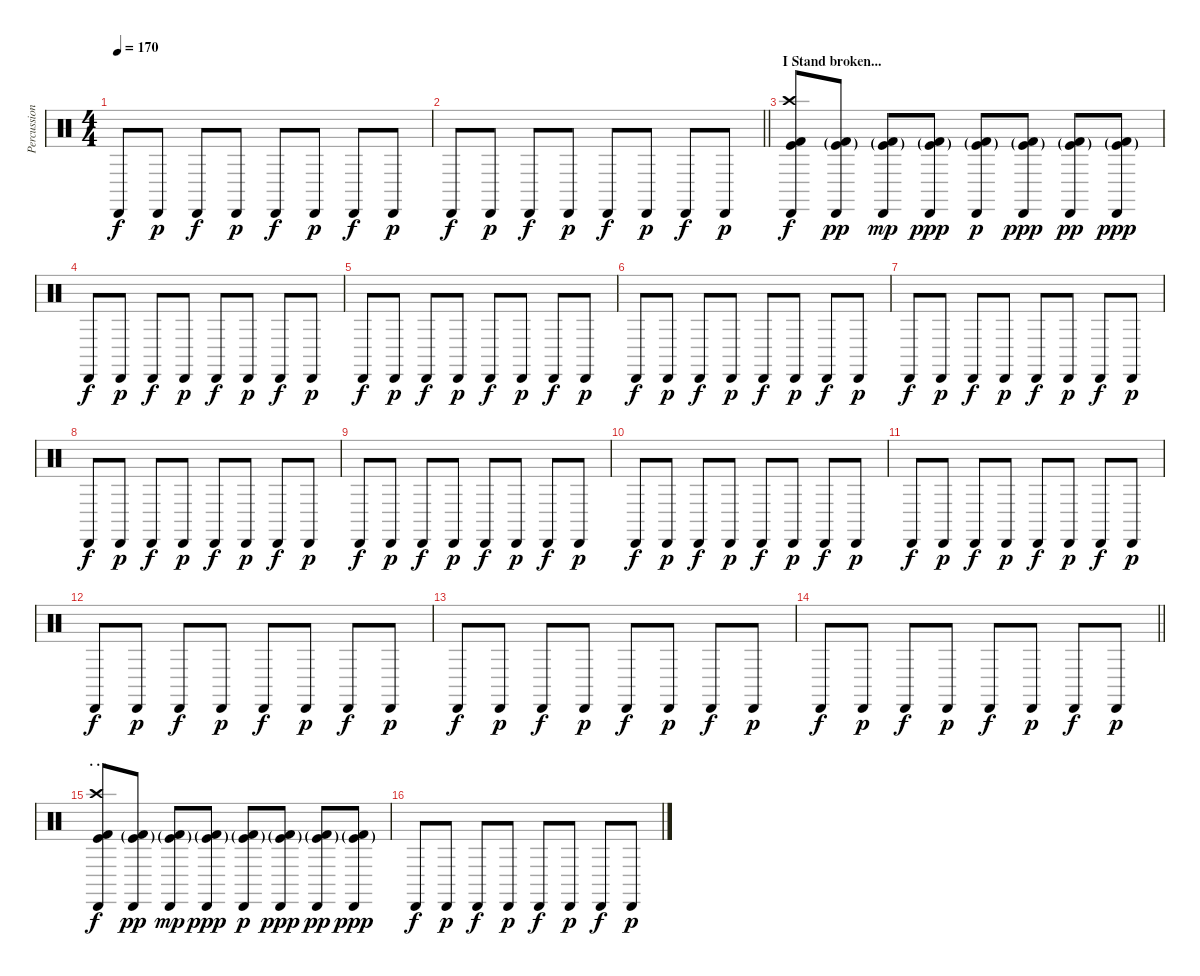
\track ("Percussion" "Percussion") {instrument percussion}
\staff {score}
\articulation defaults
\ts (4 4)
\tempo 170
\clef neutral
\ks c "Cabasa (hit)".8{dy f} "Cabasa (hit)".8{dy p} "Cabasa (hit)".8{dy f} "Cabasa (hit)".8{dy p} "Cabasa (hit)".8{dy f} "Cabasa (hit)".8{dy p} "Cabasa (hit)".8{dy f} "Cabasa (hit)".8{dy p}
|
\barLineRight lightlight "Cabasa (hit)".8{dy f} "Cabasa (hit)".8{dy p} "Cabasa (hit)".8{dy f} "Cabasa (hit)".8{dy p} "Cabasa (hit)".8{dy f} "Cabasa (hit)".8{dy p} "Cabasa (hit)".8{dy f} "Cabasa (hit)".8{dy p}
|
\section ("" "I Stand broken...")
("Cabasa (hit)" "Kick (hit)" "Kick (hit) 2" "Crash high (hit)").8{dy f} ("Cabasa (hit)" "Kick (hit)"{g} "Kick (hit) 2"{g}).8{dy pp} ("Cabasa (hit)" "Kick (hit)"{g} "Kick (hit) 2"{g}).8{dy mp} ("Cabasa (hit)" "Kick (hit)"{g} "Kick (hit) 2"{g}).8{dy ppp} ("Cabasa (hit)" "Kick (hit)"{g} "Kick (hit) 2"{g}).8{dy p} ("Cabasa (hit)" "Kick (hit)"{g} "Kick (hit) 2"{g}).8{dy ppp} ("Cabasa (hit)" "Kick (hit)"{g} "Kick (hit) 2"{g}).8{dy pp} ("Cabasa (hit)" "Kick (hit)"{g} "Kick (hit) 2"{g}).8{dy ppp} |
"Cabasa (hit)".8{dy f} "Cabasa (hit)".8{dy p} "Cabasa (hit)".8{dy f} "Cabasa (hit)".8{dy p} "Cabasa (hit)".8{dy f} "Cabasa (hit)".8{dy p} "Cabasa (hit)".8{dy f} "Cabasa (hit)".8{dy p} |
"Cabasa (hit)".8{dy f} "Cabasa (hit)".8{dy p} "Cabasa (hit)".8{dy f} "Cabasa (hit)".8{dy p} "Cabasa (hit)".8{dy f} "Cabasa (hit)".8{dy p} "Cabasa (hit)".8{dy f} "Cabasa (hit)".8{dy p} |
"Cabasa (hit)".8{dy f} "Cabasa (hit)".8{dy p} "Cabasa (hit)".8{dy f} "Cabasa (hit)".8{dy p} "Cabasa (hit)".8{dy f} "Cabasa (hit)".8{dy p} "Cabasa (hit)".8{dy f} "Cabasa (hit)".8{dy p} |
"Cabasa (hit)".8{dy f} "Cabasa (hit)".8{dy p} "Cabasa (hit)".8{dy f} "Cabasa (hit)".8{dy p} "Cabasa (hit)".8{dy f} "Cabasa (hit)".8{dy p} "Cabasa (hit)".8{dy f} "Cabasa (hit)".8{dy p} |
"Cabasa (hit)".8{dy f} "Cabasa (hit)".8{dy p} "Cabasa (hit)".8{dy f} "Cabasa (hit)".8{dy p} "Cabasa (hit)".8{dy f} "Cabasa (hit)".8{dy p} "Cabasa (hit)".8{dy f} "Cabasa (hit)".8{dy p} |
"Cabasa (hit)".8{dy f} "Cabasa (hit)".8{dy p} "Cabasa (hit)".8{dy f} "Cabasa (hit)".8{dy p} "Cabasa (hit)".8{dy f} "Cabasa (hit)".8{dy p} "Cabasa (hit)".8{dy f} "Cabasa (hit)".8{dy p} |
"Cabasa (hit)".8{dy f} "Cabasa (hit)".8{dy p} "Cabasa (hit)".8{dy f} "Cabasa (hit)".8{dy p} "Cabasa (hit)".8{dy f} "Cabasa (hit)".8{dy p} "Cabasa (hit)".8{dy f} "Cabasa (hit)".8{dy p} |
"Cabasa (hit)".8{dy f} "Cabasa (hit)".8{dy p} "Cabasa (hit)".8{dy f} "Cabasa (hit)".8{dy p} "Cabasa (hit)".8{dy f} "Cabasa (hit)".8{dy p} "Cabasa (hit)".8{dy f} "Cabasa (hit)".8{dy p} |
"Cabasa (hit)".8{dy f} "Cabasa (hit)".8{dy p} "Cabasa (hit)".8{dy f} "Cabasa (hit)".8{dy p} "Cabasa (hit)".8{dy f} "Cabasa (hit)".8{dy p} "Cabasa (hit)".8{dy f} "Cabasa (hit)".8{dy p} |
"Cabasa (hit)".8{dy f} "Cabasa (hit)".8{dy p} "Cabasa (hit)".8{dy f} "Cabasa (hit)".8{dy p} "Cabasa (hit)".8{dy f} "Cabasa (hit)".8{dy p} "Cabasa (hit)".8{dy f} "Cabasa (hit)".8{dy p} |
\barLineRight lightlight "Cabasa (hit)".8{dy f} "Cabasa (hit)".8{dy p} "Cabasa (hit)".8{dy f} "Cabasa (hit)".8{dy p} "Cabasa (hit)".8{dy f} "Cabasa (hit)".8{dy p} "Cabasa (hit)".8{dy f} "Cabasa (hit)".8{dy p}
|
\section ("" ". . .")
("Cabasa (hit)" "Kick (hit)" "Kick (hit) 2" "Crash high (hit)").8{dy f} ("Cabasa (hit)" "Kick (hit)"{g} "Kick (hit) 2"{g}).8{dy pp} ("Cabasa (hit)" "Kick (hit)"{g} "Kick (hit) 2"{g}).8{dy mp} ("Cabasa (hit)" "Kick (hit)"{g} "Kick (hit) 2"{g}).8{dy ppp} ("Cabasa (hit)" "Kick (hit)"{g} "Kick (hit) 2"{g}).8{dy p} ("Cabasa (hit)" "Kick (hit)"{g} "Kick (hit) 2"{g}).8{dy ppp} ("Cabasa (hit)" "Kick (hit)"{g} "Kick (hit) 2"{g}).8{dy pp} ("Cabasa (hit)" "Kick (hit)"{g} "Kick (hit) 2"{g}).8{dy ppp} |
"Cabasa (hit)".8{dy f} "Cabasa (hit)".8{dy p} "Cabasa (hit)".8{dy f} "Cabasa (hit)".8{dy p} "Cabasa (hit)".8{dy f} "Cabasa (hit)".8{dy p} "Cabasa (hit)".8{dy f} "Cabasa (hit)".8{dy p}
